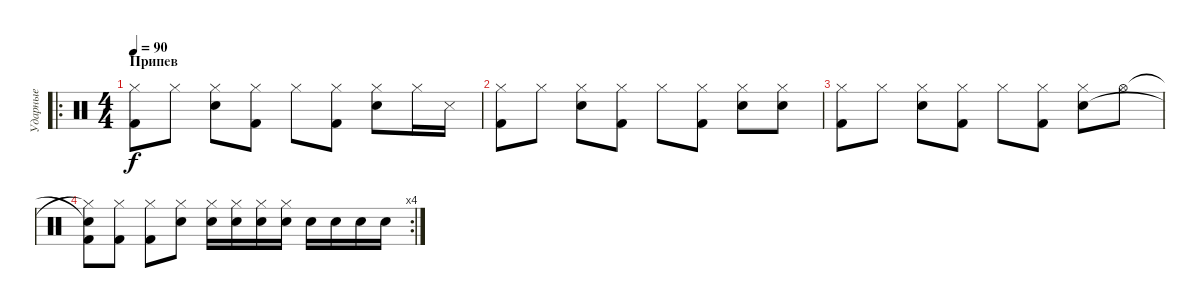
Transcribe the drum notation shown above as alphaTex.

\track ("Ударные" "Ударные") {instrument percussion}
\staff {score}
\articulation defaults
\ro
\ts (4 4)
\section ("" "Припев")
\tempo 90
\clef neutral
\ks c
("Hi-Hat (closed)" "Kick (hit) 2").8{dy f} "Hi-Hat (closed)".8 ("Hi-Hat (closed)" "Snare (hit) 2").8 ("Hi-Hat (closed)" "Kick (hit) 2").8 "Hi-Hat (closed)".8 ("Hi-Hat (closed)" "Kick (hit) 2").8 ("Hi-Hat (closed)" "Snare (hit) 2").8 "Hi-Hat (closed)".16 "Metronome (hit)".16 |
("Hi-Hat (closed)" "Kick (hit) 2").8 "Hi-Hat (closed)".8 ("Hi-Hat (closed)" "Snare (hit) 2").8 ("Hi-Hat (closed)" "Kick (hit) 2").8 "Hi-Hat (closed)".8 ("Hi-Hat (closed)" "Kick (hit) 2").8 ("Hi-Hat (closed)" "Snare (hit) 2").8 ("Hi-Hat (closed)" "Snare (hit) 2").8 |
("Hi-Hat (closed)" "Kick (hit) 2").8 "Hi-Hat (closed)".8 ("Hi-Hat (closed)" "Snare (hit) 2").8 ("Hi-Hat (closed)" "Kick (hit) 2").8 "Hi-Hat (closed)".8 ("Hi-Hat (closed)" "Kick (hit) 2").8 ("Hi-Hat (closed)" "Snare (hit) 2").8 "Hi-Hat (open)".8 |
\rc 4
("Snare (hit)"{t} "Hi-Hat (closed)"{t} "Kick (hit) 2").8 ("Hi-Hat (closed)" "Kick (hit) 2").8 ("Hi-Hat (closed)" "Kick (hit) 2").8 ("Hi-Hat (closed)" "Snare (hit) 2").8 ("Hi-Hat (closed)" "Snare (hit) 2").16 ("Hi-Hat (closed)" "Snare (hit) 2").16 ("Hi-Hat (closed)" "Snare (hit) 2").16 ("Hi-Hat (closed)" "Snare (hit) 2").16 "Electric Snare (hit)".16 "Electric Snare (hit)".16 "Snare (hit) 2".16 "Snare (hit) 2".16
